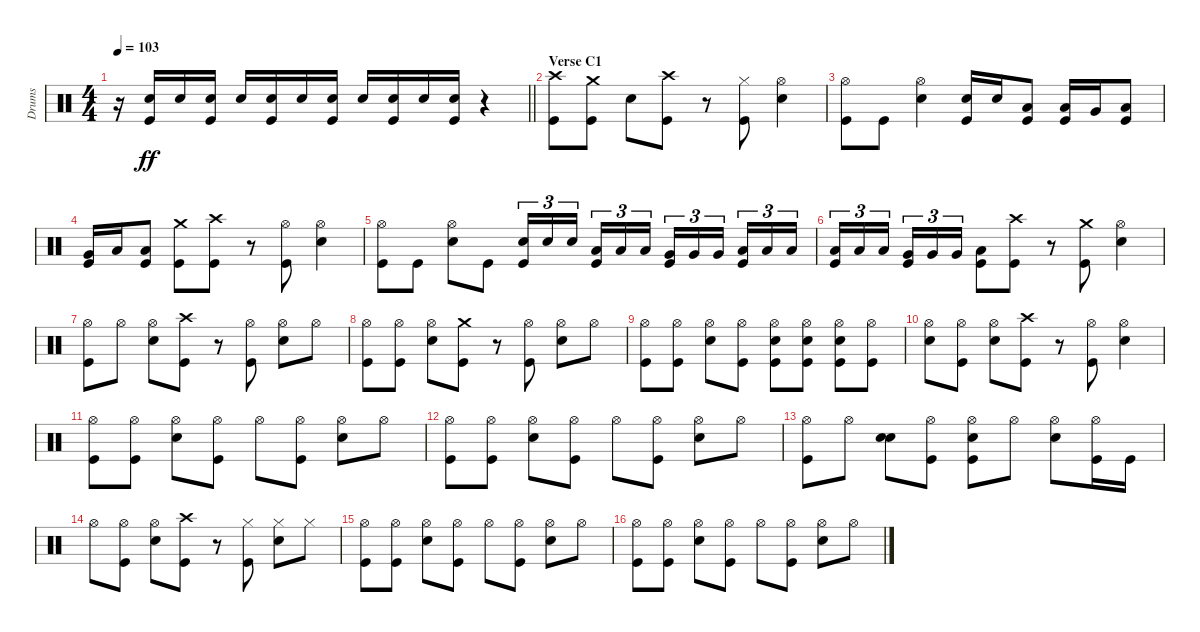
\track ("Drums" "Drums") {instrument percussion}
\staff {score}
\articulation defaults
\ts (4 4)
\tempo 103
\clef neutral
\barLineRight lightlight
\ks c
r.16{dy ff} ("Electric Snare (hit)" "Kick (hit)").16 "Electric Snare (hit)".16 ("Electric Snare (hit)" "Kick (hit)").16 "Electric Snare (hit)".16 ("Electric Snare (hit)" "Kick (hit)").16 "Electric Snare (hit)".16 ("Electric Snare (hit)" "Kick (hit)").16 "Electric Snare (hit)".16 ("Electric Snare (hit)" "Kick (hit)").16 "Electric Snare (hit)".16 ("Electric Snare (hit)" "Kick (hit)").16 r.4 |
\section ("" "Verse C1")
("Crash high (hit)" "Kick (hit)").8 ("Crash medium (hit)" "Kick (hit)").8 "Electric Snare (hit)".8 ("Crash high (hit)" "Kick (hit)").8 r.8 ("Hi-Hat (closed)" "Kick (hit)").8 ("Hi-Hat (open)" "Electric Snare (hit)").4 |
("Hi-Hat (open)" "Kick (hit)").8 "Kick (hit)".8 ("Hi-Hat (open)" "Electric Snare (hit)").4 ("Electric Snare (hit)" "Kick (hit)").16 "Electric Snare (hit)".16 ("Low Tom (hit)" "Kick (hit)").8 ("Low Tom (hit)" "Kick (hit)").16 "Very Low Tom (hit)".16 ("Low Floor Tom (hit)" "Kick (hit)").8 |
("Very Low Tom (hit)" "Kick (hit)").16 "Low Floor Tom (hit)".16 ("Low Floor Tom (hit)" "Kick (hit)").8 ("Crash medium (hit)" "Kick (hit)").8 ("Crash high (hit)" "Kick (hit)").8 r.8 ("Hi-Hat (open)" "Kick (hit)").8 ("Hi-Hat (open)" "Electric Snare (hit)").4 |
("Hi-Hat (open)" "Kick (hit)").8 "Kick (hit)".8 ("Hi-Hat (open)" "Electric Snare (hit)").8 "Kick (hit)".8 ("Electric Snare (hit)" "Kick (hit)").16{tu (3 2)} "Electric Snare (hit)".16{tu (3 2)} "Electric Snare (hit)".16{tu (3 2) beam splitsecondary} ("Low Tom (hit)" "Kick (hit)").16{tu (3 2)} "Low Tom (hit)".16{tu (3 2)} "Low Tom (hit)".16{tu (3 2)} ("Very Low Tom (hit)" "Kick (hit)").16{tu (3 2)} "Very Low Tom (hit)".16{tu (3 2)} "Very Low Tom (hit)".16{tu (3 2) beam splitsecondary} ("Low Floor Tom (hit)" "Kick (hit)").16{tu (3 2)} "Low Floor Tom (hit)".16{tu (3 2)} "Low Floor Tom (hit)".16{tu (3 2)} |
("Low Tom (hit)" "Kick (hit)").16{tu (3 2)} "Low Tom (hit)".16{tu (3 2)} "Low Tom (hit)".16{tu (3 2) beam splitsecondary} ("Very Low Tom (hit)" "Kick (hit)").16{tu (3 2)} "Very Low Tom (hit)".16{tu (3 2)} "Very Low Tom (hit)".16{tu (3 2)} ("Low Floor Tom (hit)" "Kick (hit)").8 ("Crash high (hit)" "Kick (hit)").8 r.8 ("Crash medium (hit)" "Kick (hit)").8 ("Hi-Hat (open)" "Electric Snare (hit)").4 |
("Hi-Hat (open)" "Kick (hit)").8 "Hi-Hat (open)".8 ("Hi-Hat (open)" "Electric Snare (hit)").8 ("Crash high (hit)" "Kick (hit)").8 r.8 ("Hi-Hat (open)" "Kick (hit)").8 ("Hi-Hat (open)" "Electric Snare (hit)").8 "Hi-Hat (open)".8 |
("Hi-Hat (open)" "Kick (hit)").8 ("Hi-Hat (open)" "Kick (hit)").8 ("Hi-Hat (open)" "Electric Snare (hit)").8 ("Crash medium (hit)" "Kick (hit)").8 r.8 ("Hi-Hat (open)" "Kick (hit)").8 ("Hi-Hat (open)" "Electric Snare (hit)").8 "Hi-Hat (open)".8 |
("Hi-Hat (open)" "Kick (hit)").8 ("Hi-Hat (open)" "Kick (hit)").8 ("Hi-Hat (open)" "Electric Snare (hit)").8 ("Hi-Hat (open)" "Kick (hit)").8 ("Hi-Hat (open)" "Electric Snare (hit)" "Kick (hit)").8 ("Hi-Hat (open)" "Electric Snare (hit)" "Kick (hit)").8 ("Hi-Hat (open)" "Electric Snare (hit)" "Kick (hit)").8 ("Hi-Hat (open)" "Kick (hit)").8 |
("Hi-Hat (open)" "Electric Snare (hit)").8 ("Hi-Hat (open)" "Kick (hit)").8 ("Hi-Hat (open)" "Electric Snare (hit)").8 ("Crash high (hit)" "Kick (hit)").8 r.8 ("Hi-Hat (open)" "Kick (hit)").8 ("Hi-Hat (open)" "Electric Snare (hit)").4 |
("Hi-Hat (open)" "Kick (hit)").8 ("Hi-Hat (open)" "Kick (hit)").8 ("Hi-Hat (open)" "Electric Snare (hit)").8 ("Hi-Hat (open)" "Kick (hit)").8 "Hi-Hat (open)".8 ("Hi-Hat (open)" "Kick (hit)").8 ("Hi-Hat (open)" "Electric Snare (hit)").8 "Hi-Hat (open)".8 |
("Hi-Hat (open)" "Kick (hit)").8 ("Hi-Hat (open)" "Kick (hit)").8 ("Hi-Hat (open)" "Electric Snare (hit)").8 ("Hi-Hat (open)" "Kick (hit)").8 "Hi-Hat (open)".8 ("Hi-Hat (open)" "Kick (hit)").8 ("Hi-Hat (open)" "Electric Snare (hit)").8 "Hi-Hat (open)".8 |
("Hi-Hat (open)" "Kick (hit)").8 "Hi-Hat (open)".8 ("Electric Snare (hit)" "Electric Snare (hit)").8 ("Hi-Hat (open)" "Kick (hit)").8 ("Hi-Hat (open)" "Electric Snare (hit)" "Kick (hit)").8 "Hi-Hat (open)".8 ("Hi-Hat (open)" "Electric Snare (hit)").8 ("Hi-Hat (open)" "Kick (hit)").16 "Kick (hit)".16 |
"Hi-Hat (open)".8 ("Hi-Hat (open)" "Kick (hit)").8 ("Hi-Hat (open)" "Electric Snare (hit)").8 ("Crash high (hit)" "Kick (hit)").8 r.8 ("Hi-Hat (closed)" "Kick (hit)").8 ("Hi-Hat (closed)" "Electric Snare (hit)").8 "Hi-Hat (closed)".8 |
("Hi-Hat (open)" "Kick (hit)").8 ("Hi-Hat (open)" "Kick (hit)").8 ("Hi-Hat (open)" "Electric Snare (hit)").8 ("Hi-Hat (open)" "Kick (hit)").8 "Hi-Hat (open)".8 ("Hi-Hat (open)" "Kick (hit)").8 ("Hi-Hat (open)" "Electric Snare (hit)").8 "Hi-Hat (open)".8 |
("Hi-Hat (open)" "Kick (hit)").8 ("Hi-Hat (open)" "Kick (hit)").8 ("Hi-Hat (open)" "Electric Snare (hit)").8 ("Hi-Hat (open)" "Kick (hit)").8 "Hi-Hat (open)".8 ("Hi-Hat (open)" "Kick (hit)").8 ("Hi-Hat (open)" "Electric Snare (hit)").8 "Hi-Hat (open)".8
